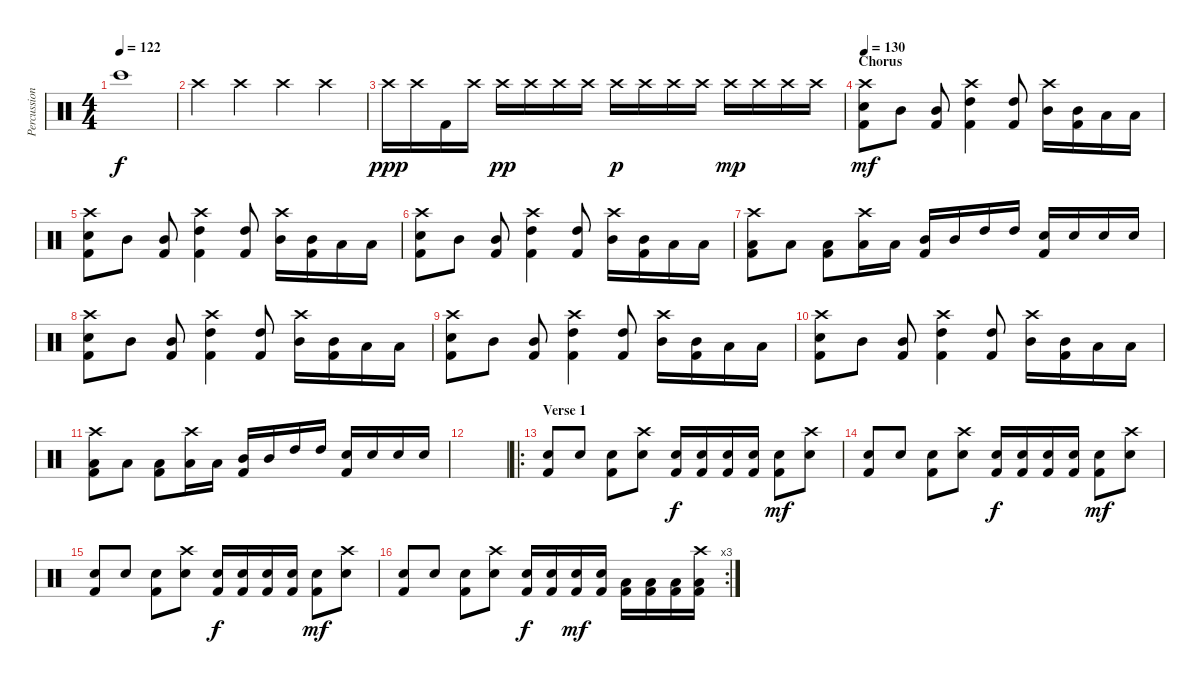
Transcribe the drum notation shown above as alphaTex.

\track ("Percussion" "Percussion") {instrument percussion}
\staff {score}
\articulation defaults
\ts (4 4)
\tempo 122
\clef neutral
\ks c "Bongo High (hit)".1{dy f}
|
"Crash high (hit)".4 "Crash high (hit)".4 "Crash high (hit)".4 "Crash high (hit)".4 |
"Crash high (hit)".16{dy ppp} "Crash high (hit)".16 "Kick (hit) 2".16 "Crash high (hit)".16 "Crash high (hit)".16{dy pp} "Crash high (hit)".16 "Crash high (hit)".16 "Crash high (hit)".16 "Crash high (hit)".16{dy p} "Crash high (hit)".16 "Crash high (hit)".16 "Crash high (hit)".16 "Crash high (hit)".16{dy mp} "Crash high (hit)".16 "Crash high (hit)".16 "Crash high (hit)".16 |
\section ("" "Chorus")
\tempo 130
("Crash high (hit)" "Snare (hit) 2" "Kick (hit) 2").8{dy mf} "Mid Tom (hit)".8 ("Mid Tom (hit)" "Kick (hit) 2").8 ("Crash high (hit)" "High Tom (hit)" "Kick (hit) 2").4 ("High Tom (hit)" "Kick (hit) 2").8 ("Crash high (hit)" "Mid Tom (hit)").16 ("Mid Tom (hit)" "Kick (hit) 2").16 "Low Tom (hit)".16 "Low Tom (hit)".16 |
("Crash high (hit)" "Snare (hit) 2" "Kick (hit) 2").8 "Mid Tom (hit)".8 ("Mid Tom (hit)" "Kick (hit) 2").8 ("Crash high (hit)" "High Tom (hit)" "Kick (hit) 2").4 ("High Tom (hit)" "Kick (hit) 2").8 ("Crash high (hit)" "Mid Tom (hit)").16 ("Mid Tom (hit)" "Kick (hit) 2").16 "Low Tom (hit)".16 "Low Tom (hit)".16 |
("Crash high (hit)" "Snare (hit) 2" "Kick (hit) 2").8 "Mid Tom (hit)".8 ("Mid Tom (hit)" "Kick (hit) 2").8 ("Crash high (hit)" "High Tom (hit)" "Kick (hit) 2").4 ("High Tom (hit)" "Kick (hit) 2").8 ("Crash high (hit)" "Mid Tom (hit)").16 ("Mid Tom (hit)" "Kick (hit) 2").16 "Low Tom (hit)".16 "Low Tom (hit)".16 |
("Crash high (hit)" "Low Tom (hit)" "Kick (hit) 2").8 "Low Tom (hit)".8 ("Low Tom (hit)" "Kick (hit) 2").8 ("Crash high (hit)" "Low Tom (hit)").16 "Low Tom (hit)".16 ("Mid Tom (hit)" "Kick (hit) 2").16 "Mid Tom (hit)".16 "High Tom (hit)".16 "High Tom (hit)".16 ("Snare (hit) 2" "Kick (hit) 2").16 "Snare (hit) 2".16 "Snare (hit) 2".16 "Snare (hit) 2".16 |
("Crash high (hit)" "Snare (hit) 2" "Kick (hit) 2").8 "Mid Tom (hit)".8 ("Mid Tom (hit)" "Kick (hit) 2").8 ("Crash high (hit)" "High Tom (hit)" "Kick (hit) 2").4 ("High Tom (hit)" "Kick (hit) 2").8 ("Crash high (hit)" "Mid Tom (hit)").16 ("Mid Tom (hit)" "Kick (hit) 2").16 "Low Tom (hit)".16 "Low Tom (hit)".16 |
("Crash high (hit)" "Snare (hit) 2" "Kick (hit) 2").8 "Mid Tom (hit)".8 ("Mid Tom (hit)" "Kick (hit) 2").8 ("Crash high (hit)" "High Tom (hit)" "Kick (hit) 2").4 ("High Tom (hit)" "Kick (hit) 2").8 ("Crash high (hit)" "Mid Tom (hit)").16 ("Mid Tom (hit)" "Kick (hit) 2").16 "Low Tom (hit)".16 "Low Tom (hit)".16 |
("Crash high (hit)" "Snare (hit) 2" "Kick (hit) 2").8 "Mid Tom (hit)".8 ("Mid Tom (hit)" "Kick (hit) 2").8 ("Crash high (hit)" "High Tom (hit)" "Kick (hit) 2").4 ("High Tom (hit)" "Kick (hit) 2").8 ("Crash high (hit)" "Mid Tom (hit)").16 ("Mid Tom (hit)" "Kick (hit) 2").16 "Low Tom (hit)".16 "Low Tom (hit)".16 |
("Crash high (hit)" "Low Tom (hit)" "Kick (hit) 2").8 "Low Tom (hit)".8 ("Low Tom (hit)" "Kick (hit) 2").8 ("Crash high (hit)" "Low Tom (hit)").16 "Low Tom (hit)".16 ("Mid Tom (hit)" "Kick (hit) 2").16 "Mid Tom (hit)".16 "High Tom (hit)".16 "High Tom (hit)".16 ("Snare (hit) 2" "Kick (hit) 2").16 "Snare (hit) 2".16 "Snare (hit) 2".16 "Snare (hit) 2".16 |
|
\ro
\section ("" "Verse 1")
("Snare (hit) 2" "Kick (hit) 2").8 "Snare (hit) 2".8 ("Snare (hit) 2" "Kick (hit) 2").8 ("Crash high (hit)" "Snare (hit) 2").8 ("Snare (hit) 2" "Kick (hit) 2").16{dy f} ("Snare (hit) 2" "Kick (hit) 2").16 ("Snare (hit) 2" "Kick (hit) 2").16 ("Snare (hit) 2" "Kick (hit) 2").16 ("Snare (hit) 2" "Kick (hit) 2").8{dy mf} ("Crash high (hit)" "Snare (hit) 2").8 |
("Snare (hit) 2" "Kick (hit) 2").8 "Snare (hit) 2".8 ("Snare (hit) 2" "Kick (hit) 2").8 ("Crash high (hit)" "Snare (hit) 2").8 ("Snare (hit) 2" "Kick (hit) 2").16{dy f} ("Snare (hit) 2" "Kick (hit) 2").16 ("Snare (hit) 2" "Kick (hit) 2").16 ("Snare (hit) 2" "Kick (hit) 2").16 ("Snare (hit) 2" "Kick (hit) 2").8{dy mf} ("Crash high (hit)" "Snare (hit) 2").8 |
("Snare (hit) 2" "Kick (hit) 2").8 "Snare (hit) 2".8 ("Snare (hit) 2" "Kick (hit) 2").8 ("Crash high (hit)" "Snare (hit) 2").8 ("Snare (hit) 2" "Kick (hit) 2").16{dy f} ("Snare (hit) 2" "Kick (hit) 2").16 ("Snare (hit) 2" "Kick (hit) 2").16 ("Snare (hit) 2" "Kick (hit) 2").16 ("Snare (hit) 2" "Kick (hit) 2").8{dy mf} ("Crash high (hit)" "Snare (hit) 2").8 |
\rc 3
("Snare (hit) 2" "Kick (hit) 2").8 "Snare (hit) 2".8 ("Snare (hit) 2" "Kick (hit) 2").8 ("Crash high (hit)" "Snare (hit) 2").8 ("Snare (hit) 2" "Kick (hit) 2").16{dy f} ("Snare (hit) 2" "Kick (hit) 2").16 ("Snare (hit) 2" "Kick (hit) 2").16{dy mf} ("Snare (hit) 2" "Kick (hit) 2").16 ("Low Tom (hit)" "Kick (hit) 2").16 ("Low Tom (hit)" "Kick (hit) 2").16 ("Low Tom (hit)" "Kick (hit) 2").16 ("Crash high (hit)" "Low Tom (hit)" "Kick (hit) 2").16
